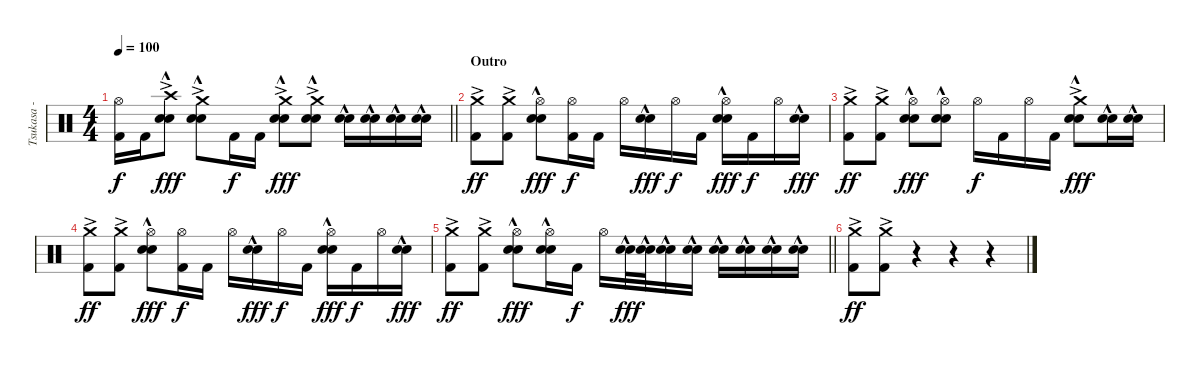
\track ("Tsukasa - Drums" "Tsukasa - ") {instrument percussion}
\staff {score}
\articulation defaults
\ts (4 4)
\tempo 100
\clef neutral
\barLineRight lightlight
\ks c
("Hi-Hat (open)" "Kick (hit) 2").16{dy f} "Kick (hit) 2".16 ("Crash high (hit)"{ac} "Electric Snare (hit)"{hac} "Snare (hit) 2"{hac}).8{dy fff} ("Crash medium (hit)"{ac} "Electric Snare (hit)"{hac} "Snare (hit) 2"{hac}).8 "Kick (hit) 2".16{dy f} "Kick (hit) 2".16 ("Crash medium (hit)"{ac} "Electric Snare (hit)"{hac} "Snare (hit) 2"{hac}).8{dy fff} ("Crash medium (hit)"{ac} "Electric Snare (hit)"{hac} "Snare (hit) 2"{hac}).8 ("Electric Snare (hit)"{hac} "Snare (hit) 2"{hac}).16 ("Electric Snare (hit)"{hac} "Snare (hit) 2"{hac}).16 ("Electric Snare (hit)"{hac} "Snare (hit) 2"{hac}).16 ("Electric Snare (hit)"{hac} "Snare (hit) 2"{hac}).16 |
\section ("" "Outro")
("Crash medium (hit)"{ac} "Kick (hit) 2").8{dy ff} ("Crash medium (hit)"{ac} "Kick (hit) 2").8 ("Hi-Hat (open)" "Electric Snare (hit)"{hac} "Snare (hit) 2"{hac}).8{dy fff} ("Hi-Hat (open)" "Kick (hit) 2").16{dy f} "Kick (hit) 2".16 "Hi-Hat (open)".16 ("Electric Snare (hit)"{hac} "Snare (hit) 2"{hac}).16{dy fff} "Hi-Hat (open)".16{dy f} "Kick (hit) 2".16 ("Hi-Hat (open)" "Electric Snare (hit)"{hac} "Snare (hit) 2"{hac}).16{dy fff} "Kick (hit) 2".16{dy f} "Hi-Hat (open)".16 ("Electric Snare (hit)"{hac} "Snare (hit) 2"{hac}).16{dy fff} |
("Crash medium (hit)"{ac} "Kick (hit) 2").8{dy ff} ("Crash medium (hit)"{ac} "Kick (hit) 2").8 ("Hi-Hat (open)" "Electric Snare (hit)"{hac} "Snare (hit) 2"{hac}).8{dy fff} ("Hi-Hat (open)" "Electric Snare (hit)"{hac} "Snare (hit) 2"{hac}).8 "Hi-Hat (open)".16{dy f} "Kick (hit) 2".16 "Hi-Hat (open)".16 "Kick (hit) 2".16 ("Crash medium (hit)"{ac} "Electric Snare (hit)"{hac} "Snare (hit) 2"{hac}).8{dy fff} ("Electric Snare (hit)"{hac} "Snare (hit) 2"{hac}).16 ("Electric Snare (hit)"{hac} "Snare (hit) 2"{hac}).16 |
("Crash medium (hit)"{ac} "Kick (hit) 2").8{dy ff} ("Crash medium (hit)"{ac} "Kick (hit) 2").8 ("Hi-Hat (open)" "Electric Snare (hit)"{hac} "Snare (hit) 2"{hac}).8{dy fff} ("Hi-Hat (open)" "Kick (hit) 2").16{dy f} "Kick (hit) 2".16 "Hi-Hat (open)".16 ("Electric Snare (hit)"{hac} "Snare (hit) 2"{hac}).16{dy fff} "Hi-Hat (open)".16{dy f} "Kick (hit) 2".16 ("Hi-Hat (open)" "Electric Snare (hit)"{hac} "Snare (hit) 2"{hac}).16{dy fff} "Kick (hit) 2".16{dy f} "Hi-Hat (open)".16 ("Electric Snare (hit)"{hac} "Snare (hit) 2"{hac}).16{dy fff} |
\barLineRight lightlight
("Crash medium (hit)"{ac} "Kick (hit) 2").8{dy ff} ("Crash medium (hit)"{ac} "Kick (hit) 2").8 ("Hi-Hat (open)" "Electric Snare (hit)"{hac} "Snare (hit) 2"{hac}).8{dy fff} ("Hi-Hat (open)" "Electric Snare (hit)"{hac} "Snare (hit) 2"{hac}).16 "Kick (hit) 2".16{dy f} "Hi-Hat (open)".16 ("Electric Snare (hit)"{hac} "Snare (hit) 2"{hac}).32{dy fff} ("Electric Snare (hit)"{hac} "Snare (hit) 2"{hac}).32 ("Electric Snare (hit)"{hac} "Snare (hit) 2"{hac}).16 ("Electric Snare (hit)"{hac} "Snare (hit) 2"{hac}).16 ("Electric Snare (hit)"{hac} "Snare (hit) 2"{hac}).16 ("Electric Snare (hit)"{hac} "Snare (hit) 2"{hac}).16 ("Electric Snare (hit)"{hac} "Snare (hit) 2"{hac}).16 ("Electric Snare (hit)"{hac} "Snare (hit) 2"{hac}).16 |
("Crash medium (hit)"{ac} "Kick (hit) 2").8{dy ff} ("Crash medium (hit)"{ac} "Kick (hit) 2").8 r.4 r.4 r.4
